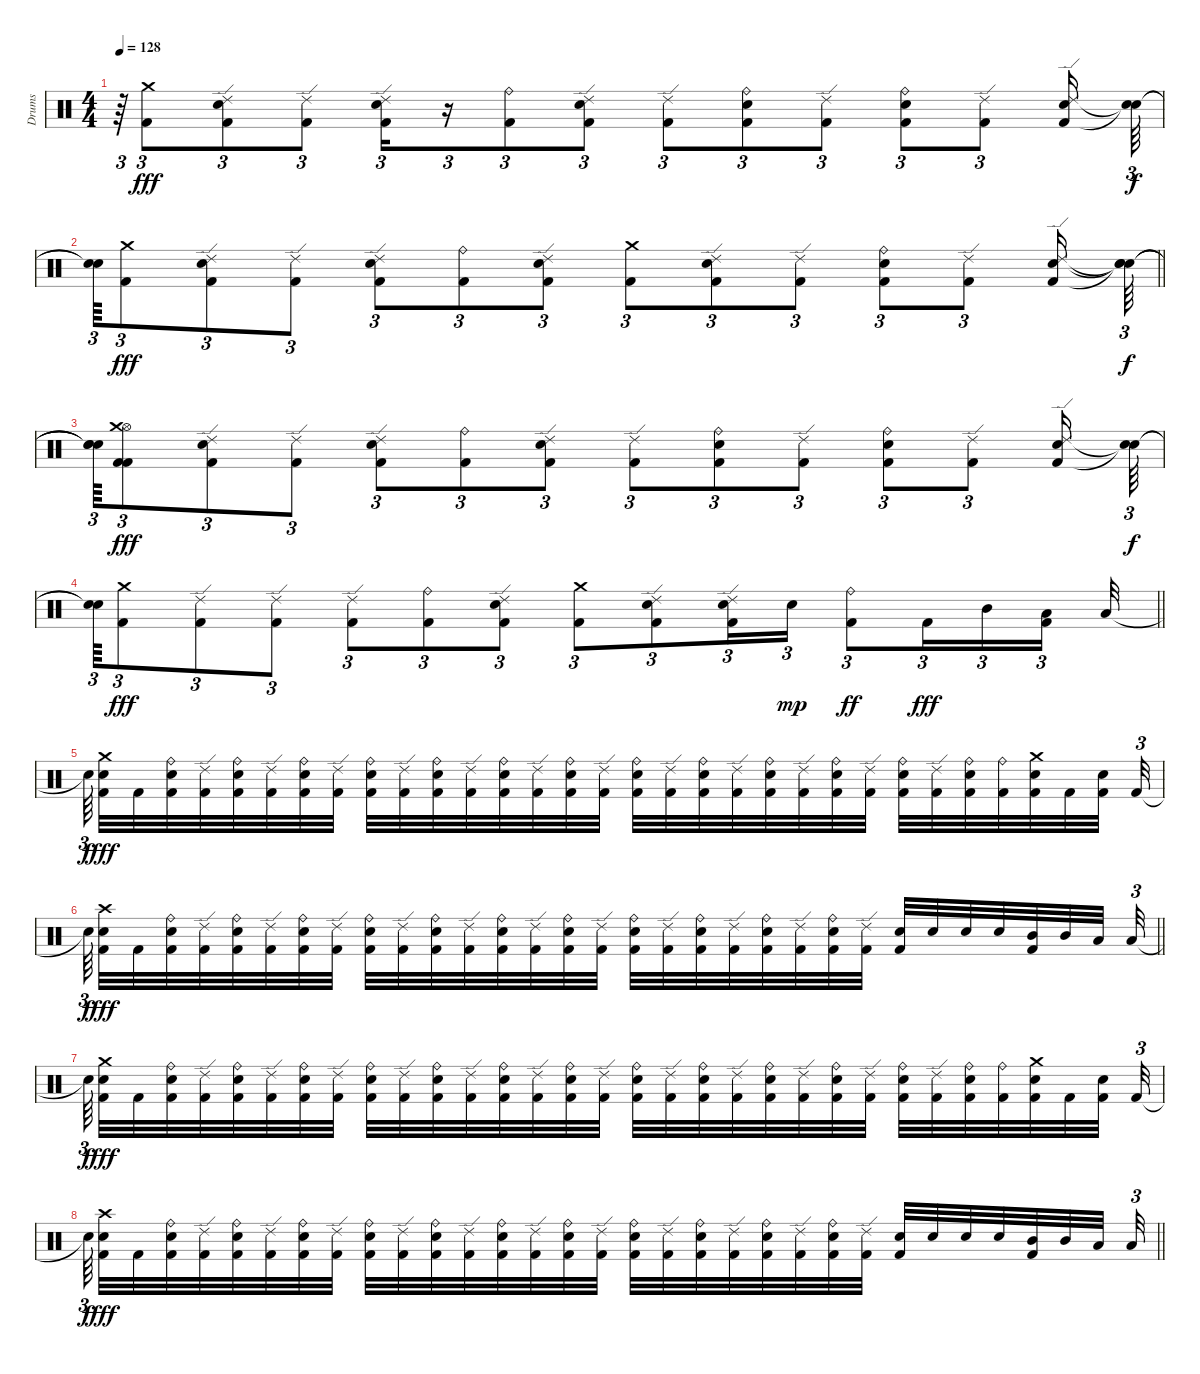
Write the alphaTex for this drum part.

\track ("Drums" "Drums") {instrument percussion}
\staff {score}
\articulation defaults
\ts (4 4)
\tempo 128
\clef neutral
\ks c
r.64{tu (3 2) dy fff} ("Kick (hit) 2" "Crash medium (hit)").8{tu (3 2)} ("Kick (hit) 2" "Ride (edge) 2" "Snare (hit) 2").8{tu (3 2)} ("Kick (hit) 2" "Ride (edge) 2").8{tu (3 2)} ("Kick (hit) 2" "Ride (edge) 2" "Snare (hit) 2").16{tu (3 2)} r.16{tu (3 2)} ("Kick (hit) 2" "Ride (bell)").8{tu (3 2)} ("Kick (hit) 2" "Ride (edge) 2" "Snare (hit) 2").8{tu (3 2)} ("Kick (hit) 2" "Ride (edge) 2").8{tu (3 2)} ("Kick (hit) 2" "Ride (bell)" "Snare (hit) 2").8{tu (3 2)} ("Kick (hit) 2" "Ride (edge) 2").8{tu (3 2)} ("Kick (hit) 2" "Ride (bell)" "Snare (hit) 2").8{tu (3 2)} ("Kick (hit) 2" "Ride (edge) 2").8{tu (3 2)} ("Kick (hit) 2" "Ride (edge) 2" "Snare (hit) 2").16 ("Snare (hit)"{t} "Snare (hit)"{t}).64{tu (3 2) dy f} |
\barLineRight lightlight
("Snare (hit)"{t} "Snare (hit)"{t}).64{tu (3 2)} ("Kick (hit) 2" "Crash medium (hit)").8{tu (3 2) dy fff} ("Kick (hit) 2" "Ride (edge) 2" "Snare (hit) 2").8{tu (3 2)} ("Kick (hit) 2" "Ride (edge) 2").8{tu (3 2)} ("Kick (hit) 2" "Ride (edge) 2" "Snare (hit) 2").8{tu (3 2)} ("Kick (hit) 2" "Ride (bell)").8{tu (3 2)} ("Kick (hit) 2" "Snare (hit) 2" "Ride (edge) 2").8{tu (3 2)} ("Kick (hit) 2" "Crash medium (hit)").8{tu (3 2)} ("Kick (hit) 2" "Snare (hit) 2" "Ride (edge) 2").8{tu (3 2)} ("Kick (hit) 2" "Ride (edge) 2").8{tu (3 2)} ("Kick (hit) 2" "Ride (bell)" "Snare (hit) 2").8{tu (3 2)} ("Kick (hit) 2" "Ride (edge) 2").8{tu (3 2)} ("Kick (hit) 2" "Snare (hit) 2" "Ride (edge) 2").16 ("Snare (hit)"{t} "Snare (hit)"{t} "Snare (hit)"{t}).64{tu (3 2) dy f} |
("Snare (hit)"{t} "Snare (hit)"{t} "Snare (hit)"{t}).64{tu (3 2)} ("Kick (hit) 2" "Hi-Hat (open)" "Kick (hit) 2" "Crash medium (hit)").8{tu (3 2) dy fff} ("Kick (hit) 2" "Ride (edge) 2" "Snare (hit) 2").8{tu (3 2)} ("Kick (hit) 2" "Ride (edge) 2").8{tu (3 2)} ("Kick (hit) 2" "Ride (edge) 2" "Snare (hit) 2").8{tu (3 2)} ("Kick (hit) 2" "Ride (bell)").8{tu (3 2)} ("Kick (hit) 2" "Ride (edge) 2" "Snare (hit) 2").8{tu (3 2)} ("Kick (hit) 2" "Ride (edge) 2").8{tu (3 2)} ("Kick (hit) 2" "Ride (bell)" "Snare (hit) 2").8{tu (3 2)} ("Kick (hit) 2" "Ride (edge) 2").8{tu (3 2)} ("Kick (hit) 2" "Ride (bell)" "Snare (hit) 2").8{tu (3 2)} ("Kick (hit) 2" "Ride (edge) 2").8{tu (3 2)} ("Kick (hit) 2" "Ride (edge) 2" "Snare (hit) 2").16 ("Snare (hit)"{t} "Snare (hit)"{t}).64{tu (3 2) dy f} |
\barLineRight lightlight
("Snare (hit)"{t} "Snare (hit)"{t}).64{tu (3 2)} ("Kick (hit) 2" "Crash medium (hit)").8{tu (3 2) dy fff} ("Kick (hit) 2" "Ride (edge) 2").8{tu (3 2)} ("Kick (hit) 2" "Ride (edge) 2").8{tu (3 2)} ("Kick (hit) 2" "Ride (edge) 2").8{tu (3 2)} ("Kick (hit) 2" "Ride (bell)").8{tu (3 2)} ("Kick (hit) 2" "Snare (hit) 2" "Ride (edge) 2").8{tu (3 2)} ("Kick (hit) 2" "Crash medium (hit)").8{tu (3 2)} ("Kick (hit) 2" "Snare (hit) 2" "Ride (edge) 2").8{tu (3 2)} ("Kick (hit) 2" "Snare (hit) 2" "Ride (edge) 2").16{tu (3 2)} "Snare (hit) 2".16{tu (3 2) dy mp} ("Kick (hit) 2" "Ride (bell)").8{tu (3 2) dy ff} "Kick (hit) 2".16{tu (3 2) dy fff} "Mid Tom (hit)".16{tu (3 2)} ("Kick (hit) 2" "Low Tom (hit)").16{tu (3 2) beam splitsecondary} "Low Tom (hit)".32 |
"Snare (hit)"{t}.64{tu (3 2) dy f beam splitsecondary} ("Kick (hit) 2" "Snare (hit) 2" "Crash medium (hit)").32{dy fff} "Kick (hit) 2".32 ("Kick (hit) 2" "Snare (hit) 2" "Ride (bell)").32 ("Kick (hit) 2" "Ride (edge) 2").32 ("Kick (hit) 2" "Snare (hit) 2" "Ride (bell)").32 ("Kick (hit) 2" "Ride (edge) 2").32 ("Kick (hit) 2" "Snare (hit) 2" "Ride (bell)").32 ("Kick (hit) 2" "Ride (edge) 2").32 ("Kick (hit) 2" "Snare (hit) 2" "Ride (bell)").32 ("Kick (hit) 2" "Ride (edge) 2").32 ("Kick (hit) 2" "Snare (hit) 2" "Ride (bell)").32 ("Kick (hit) 2" "Ride (edge) 2").32 ("Kick (hit) 2" "Snare (hit) 2" "Ride (bell)").32 ("Kick (hit) 2" "Ride (edge) 2").32 ("Kick (hit) 2" "Snare (hit) 2" "Ride (bell)").32 ("Kick (hit) 2" "Ride (edge) 2").32 ("Kick (hit) 2" "Snare (hit) 2" "Ride (bell)").32 ("Kick (hit) 2" "Ride (edge) 2").32 ("Kick (hit) 2" "Snare (hit) 2" "Ride (bell)").32 ("Kick (hit) 2" "Ride (edge) 2").32 ("Kick (hit) 2" "Snare (hit) 2" "Ride (bell)").32 ("Kick (hit) 2" "Ride (edge) 2").32 ("Kick (hit) 2" "Snare (hit) 2" "Ride (bell)").32 ("Kick (hit) 2" "Ride (edge) 2").32 ("Kick (hit) 2" "Snare (hit) 2" "Ride (bell)").32 ("Kick (hit) 2" "Ride (edge) 2").32 ("Kick (hit) 2" "Snare (hit) 2" "Ride (bell)").32 ("Kick (hit) 2" "Ride (bell)").32 ("Kick (hit) 2" "Snare (hit) 2" "Crash medium (hit)").32 "Kick (hit) 2".32 ("Kick (hit) 2" "Snare (hit) 2").32{beam splitsecondary} "Kick (hit) 2".32{tu (3 2)} |
\barLineRight lightlight "Snare (hit)"{t}.64{tu (3 2) dy f beam splitsecondary}
("Kick (hit) 2" "Snare (hit) 2" "Crash high (hit)").32{dy fff} "Kick (hit) 2".32 ("Kick (hit) 2" "Snare (hit) 2" "Ride (bell)").32 ("Kick (hit) 2" "Ride (edge) 2").32 ("Kick (hit) 2" "Snare (hit) 2" "Ride (bell)").32 ("Kick (hit) 2" "Ride (edge) 2").32 ("Kick (hit) 2" "Snare (hit) 2" "Ride (bell)").32 ("Kick (hit) 2" "Ride (edge) 2").32 ("Kick (hit) 2" "Snare (hit) 2" "Ride (bell)").32 ("Kick (hit) 2" "Ride (edge) 2").32 ("Kick (hit) 2" "Snare (hit) 2" "Ride (bell)").32 ("Kick (hit) 2" "Ride (edge) 2").32 ("Kick (hit) 2" "Snare (hit) 2" "Ride (bell)").32 ("Kick (hit) 2" "Ride (edge) 2").32 ("Kick (hit) 2" "Snare (hit) 2" "Ride (bell)").32 ("Kick (hit) 2" "Ride (edge) 2").32 ("Kick (hit) 2" "Snare (hit) 2" "Ride (bell)").32 ("Kick (hit) 2" "Ride (edge) 2").32 ("Kick (hit) 2" "Snare (hit) 2" "Ride (bell)").32 ("Kick (hit) 2" "Ride (edge) 2").32 ("Kick (hit) 2" "Snare (hit) 2" "Ride (bell)").32 ("Kick (hit) 2" "Ride (edge) 2").32 ("Kick (hit) 2" "Snare (hit) 2" "Ride (bell)").32 ("Kick (hit) 2" "Ride (edge) 2").32 ("Kick (hit) 2" "Snare (hit) 2").32 "Snare (hit) 2".32 "Snare (hit) 2".32 "Snare (hit) 2".32 ("Kick (hit) 2" "Mid Tom (hit)").32 "Mid Tom (hit)".32 "Low Tom (hit)".32{beam splitsecondary} "Low Tom (hit)".32{tu (3 2)} |
"Snare (hit)"{t}.64{tu (3 2) dy f beam splitsecondary} ("Kick (hit) 2" "Snare (hit) 2" "Crash medium (hit)").32{dy fff} "Kick (hit) 2".32 ("Kick (hit) 2" "Snare (hit) 2" "Ride (bell)").32 ("Kick (hit) 2" "Ride (edge) 2").32 ("Kick (hit) 2" "Snare (hit) 2" "Ride (bell)").32 ("Kick (hit) 2" "Ride (edge) 2").32 ("Kick (hit) 2" "Snare (hit) 2" "Ride (bell)").32 ("Kick (hit) 2" "Ride (edge) 2").32 ("Kick (hit) 2" "Snare (hit) 2" "Ride (bell)").32 ("Kick (hit) 2" "Ride (edge) 2").32 ("Kick (hit) 2" "Snare (hit) 2" "Ride (bell)").32 ("Kick (hit) 2" "Ride (edge) 2").32 ("Kick (hit) 2" "Snare (hit) 2" "Ride (bell)").32 ("Kick (hit) 2" "Ride (edge) 2").32 ("Kick (hit) 2" "Snare (hit) 2" "Ride (bell)").32 ("Kick (hit) 2" "Ride (edge) 2").32 ("Kick (hit) 2" "Snare (hit) 2" "Ride (bell)").32 ("Kick (hit) 2" "Ride (edge) 2").32 ("Kick (hit) 2" "Snare (hit) 2" "Ride (bell)").32 ("Kick (hit) 2" "Ride (edge) 2").32 ("Kick (hit) 2" "Snare (hit) 2" "Ride (bell)").32 ("Kick (hit) 2" "Ride (edge) 2").32 ("Kick (hit) 2" "Snare (hit) 2" "Ride (bell)").32 ("Kick (hit) 2" "Ride (edge) 2").32 ("Kick (hit) 2" "Snare (hit) 2" "Ride (bell)").32 ("Kick (hit) 2" "Ride (edge) 2").32 ("Kick (hit) 2" "Snare (hit) 2" "Ride (bell)").32 ("Kick (hit) 2" "Ride (bell)").32 ("Kick (hit) 2" "Snare (hit) 2" "Crash medium (hit)").32 "Kick (hit) 2".32 ("Kick (hit) 2" "Snare (hit) 2").32{beam splitsecondary} "Kick (hit) 2".32{tu (3 2)} |
\barLineRight lightlight "Snare (hit)"{t}.64{tu (3 2) dy f beam splitsecondary}
("Kick (hit) 2" "Snare (hit) 2" "Crash high (hit)").32{dy fff} "Kick (hit) 2".32 ("Kick (hit) 2" "Snare (hit) 2" "Ride (bell)").32 ("Kick (hit) 2" "Ride (edge) 2").32 ("Kick (hit) 2" "Snare (hit) 2" "Ride (bell)").32 ("Kick (hit) 2" "Ride (edge) 2").32 ("Kick (hit) 2" "Snare (hit) 2" "Ride (bell)").32 ("Kick (hit) 2" "Ride (edge) 2").32 ("Kick (hit) 2" "Snare (hit) 2" "Ride (bell)").32 ("Kick (hit) 2" "Ride (edge) 2").32 ("Kick (hit) 2" "Snare (hit) 2" "Ride (bell)").32 ("Kick (hit) 2" "Ride (edge) 2").32 ("Kick (hit) 2" "Snare (hit) 2" "Ride (bell)").32 ("Kick (hit) 2" "Ride (edge) 2").32 ("Kick (hit) 2" "Snare (hit) 2" "Ride (bell)").32 ("Kick (hit) 2" "Ride (edge) 2").32 ("Kick (hit) 2" "Snare (hit) 2" "Ride (bell)").32 ("Kick (hit) 2" "Ride (edge) 2").32 ("Kick (hit) 2" "Snare (hit) 2" "Ride (bell)").32 ("Kick (hit) 2" "Ride (edge) 2").32 ("Kick (hit) 2" "Snare (hit) 2" "Ride (bell)").32 ("Kick (hit) 2" "Ride (edge) 2").32 ("Kick (hit) 2" "Snare (hit) 2" "Ride (bell)").32 ("Kick (hit) 2" "Ride (edge) 2").32 ("Kick (hit) 2" "Snare (hit) 2").32 "Snare (hit) 2".32 "Snare (hit) 2".32 "Snare (hit) 2".32 ("Kick (hit) 2" "Mid Tom (hit)").32 "Mid Tom (hit)".32 "Low Tom (hit)".32{beam splitsecondary} "Low Tom (hit)".32{tu (3 2)}
